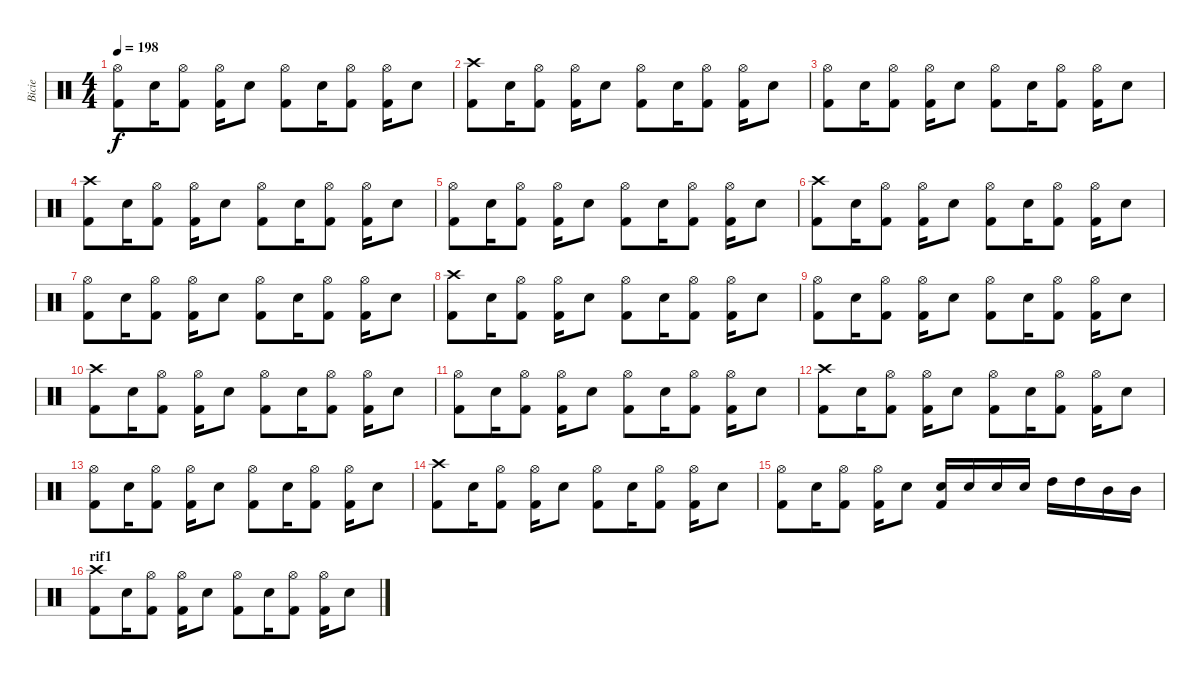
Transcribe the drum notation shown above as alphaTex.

\track ("Bicie" "Bicie") {instrument percussion}
\staff {score}
\articulation defaults
\ts (4 4)
\tempo 198
\clef neutral
\ks c
("Hi-Hat (open)" "Kick (hit) 2").8{dy f} "Electric Snare (hit)".16 ("Hi-Hat (open)" "Kick (hit) 2").8 ("Hi-Hat (open)" "Kick (hit) 2").16 "Electric Snare (hit)".8 ("Hi-Hat (open)" "Kick (hit) 2").8 "Electric Snare (hit)".16 ("Hi-Hat (open)" "Kick (hit) 2").8 ("Hi-Hat (open)" "Kick (hit) 2").16 "Electric Snare (hit)".8 |
("Crash high (hit)" "Kick (hit) 2").8 "Electric Snare (hit)".16 ("Hi-Hat (open)" "Kick (hit) 2").8 ("Hi-Hat (open)" "Kick (hit) 2").16 "Electric Snare (hit)".8 ("Hi-Hat (open)" "Kick (hit) 2").8 "Electric Snare (hit)".16 ("Hi-Hat (open)" "Kick (hit) 2").8 ("Hi-Hat (open)" "Kick (hit) 2").16 "Electric Snare (hit)".8 |
("Hi-Hat (open)" "Kick (hit) 2").8 "Electric Snare (hit)".16 ("Hi-Hat (open)" "Kick (hit) 2").8 ("Hi-Hat (open)" "Kick (hit) 2").16 "Electric Snare (hit)".8 ("Hi-Hat (open)" "Kick (hit) 2").8 "Electric Snare (hit)".16 ("Hi-Hat (open)" "Kick (hit) 2").8 ("Hi-Hat (open)" "Kick (hit) 2").16 "Electric Snare (hit)".8 |
("Crash high (hit)" "Kick (hit) 2").8 "Electric Snare (hit)".16 ("Hi-Hat (open)" "Kick (hit) 2").8 ("Hi-Hat (open)" "Kick (hit) 2").16 "Electric Snare (hit)".8 ("Hi-Hat (open)" "Kick (hit) 2").8 "Electric Snare (hit)".16 ("Hi-Hat (open)" "Kick (hit) 2").8 ("Hi-Hat (open)" "Kick (hit) 2").16 "Electric Snare (hit)".8 |
("Hi-Hat (open)" "Kick (hit) 2").8 "Electric Snare (hit)".16 ("Hi-Hat (open)" "Kick (hit) 2").8 ("Hi-Hat (open)" "Kick (hit) 2").16 "Electric Snare (hit)".8 ("Hi-Hat (open)" "Kick (hit) 2").8 "Electric Snare (hit)".16 ("Hi-Hat (open)" "Kick (hit) 2").8 ("Hi-Hat (open)" "Kick (hit) 2").16 "Electric Snare (hit)".8 |
("Crash high (hit)" "Kick (hit) 2").8 "Electric Snare (hit)".16 ("Hi-Hat (open)" "Kick (hit) 2").8 ("Hi-Hat (open)" "Kick (hit) 2").16 "Electric Snare (hit)".8 ("Hi-Hat (open)" "Kick (hit) 2").8 "Electric Snare (hit)".16 ("Hi-Hat (open)" "Kick (hit) 2").8 ("Hi-Hat (open)" "Kick (hit) 2").16 "Electric Snare (hit)".8 |
("Hi-Hat (open)" "Kick (hit) 2").8 "Electric Snare (hit)".16 ("Hi-Hat (open)" "Kick (hit) 2").8 ("Hi-Hat (open)" "Kick (hit) 2").16 "Electric Snare (hit)".8 ("Hi-Hat (open)" "Kick (hit) 2").8 "Electric Snare (hit)".16 ("Hi-Hat (open)" "Kick (hit) 2").8 ("Hi-Hat (open)" "Kick (hit) 2").16 "Electric Snare (hit)".8 |
("Crash high (hit)" "Kick (hit) 2").8 "Electric Snare (hit)".16 ("Hi-Hat (open)" "Kick (hit) 2").8 ("Hi-Hat (open)" "Kick (hit) 2").16 "Electric Snare (hit)".8 ("Hi-Hat (open)" "Kick (hit) 2").8 "Electric Snare (hit)".16 ("Hi-Hat (open)" "Kick (hit) 2").8 ("Hi-Hat (open)" "Kick (hit) 2").16 "Electric Snare (hit)".8 |
("Hi-Hat (open)" "Kick (hit) 2").8 "Electric Snare (hit)".16 ("Hi-Hat (open)" "Kick (hit) 2").8 ("Hi-Hat (open)" "Kick (hit) 2").16 "Electric Snare (hit)".8 ("Hi-Hat (open)" "Kick (hit) 2").8 "Electric Snare (hit)".16 ("Hi-Hat (open)" "Kick (hit) 2").8 ("Hi-Hat (open)" "Kick (hit) 2").16 "Electric Snare (hit)".8 |
("Crash high (hit)" "Kick (hit) 2").8 "Electric Snare (hit)".16 ("Hi-Hat (open)" "Kick (hit) 2").8 ("Hi-Hat (open)" "Kick (hit) 2").16 "Electric Snare (hit)".8 ("Hi-Hat (open)" "Kick (hit) 2").8 "Electric Snare (hit)".16 ("Hi-Hat (open)" "Kick (hit) 2").8 ("Hi-Hat (open)" "Kick (hit) 2").16 "Electric Snare (hit)".8 |
("Hi-Hat (open)" "Kick (hit) 2").8 "Electric Snare (hit)".16 ("Hi-Hat (open)" "Kick (hit) 2").8 ("Hi-Hat (open)" "Kick (hit) 2").16 "Electric Snare (hit)".8 ("Hi-Hat (open)" "Kick (hit) 2").8 "Electric Snare (hit)".16 ("Hi-Hat (open)" "Kick (hit) 2").8 ("Hi-Hat (open)" "Kick (hit) 2").16 "Electric Snare (hit)".8 |
("Crash high (hit)" "Kick (hit) 2").8 "Electric Snare (hit)".16 ("Hi-Hat (open)" "Kick (hit) 2").8 ("Hi-Hat (open)" "Kick (hit) 2").16 "Electric Snare (hit)".8 ("Hi-Hat (open)" "Kick (hit) 2").8 "Electric Snare (hit)".16 ("Hi-Hat (open)" "Kick (hit) 2").8 ("Hi-Hat (open)" "Kick (hit) 2").16 "Electric Snare (hit)".8 |
("Hi-Hat (open)" "Kick (hit) 2").8 "Electric Snare (hit)".16 ("Hi-Hat (open)" "Kick (hit) 2").8 ("Hi-Hat (open)" "Kick (hit) 2").16 "Electric Snare (hit)".8 ("Hi-Hat (open)" "Kick (hit) 2").8 "Electric Snare (hit)".16 ("Hi-Hat (open)" "Kick (hit) 2").8 ("Hi-Hat (open)" "Kick (hit) 2").16 "Electric Snare (hit)".8 |
("Crash high (hit)" "Kick (hit) 2").8 "Electric Snare (hit)".16 ("Hi-Hat (open)" "Kick (hit) 2").8 ("Hi-Hat (open)" "Kick (hit) 2").16 "Electric Snare (hit)".8 ("Hi-Hat (open)" "Kick (hit) 2").8 "Electric Snare (hit)".16 ("Hi-Hat (open)" "Kick (hit) 2").8 ("Hi-Hat (open)" "Kick (hit) 2").16 "Electric Snare (hit)".8 |
("Hi-Hat (open)" "Kick (hit) 2").8 "Electric Snare (hit)".16 ("Hi-Hat (open)" "Kick (hit) 2").8 ("Hi-Hat (open)" "Kick (hit) 2").16 "Electric Snare (hit)".8 ("Electric Snare (hit)" "Kick (hit) 2").16 "Electric Snare (hit)".16 "Electric Snare (hit)".16 "Electric Snare (hit)".16 "High Tom (hit)".16 "High Tom (hit)".16 "Mid Tom (hit)".16 "Mid Tom (hit)".16 |
\section ("" "rif1")
("Crash high (hit)" "Kick (hit) 2").8 "Electric Snare (hit)".16 ("Hi-Hat (open)" "Kick (hit) 2").8 ("Hi-Hat (open)" "Kick (hit) 2").16 "Electric Snare (hit)".8 ("Hi-Hat (open)" "Kick (hit) 2").8 "Electric Snare (hit)".16 ("Hi-Hat (open)" "Kick (hit) 2").8 ("Hi-Hat (open)" "Kick (hit) 2").16 "Electric Snare (hit)".8
